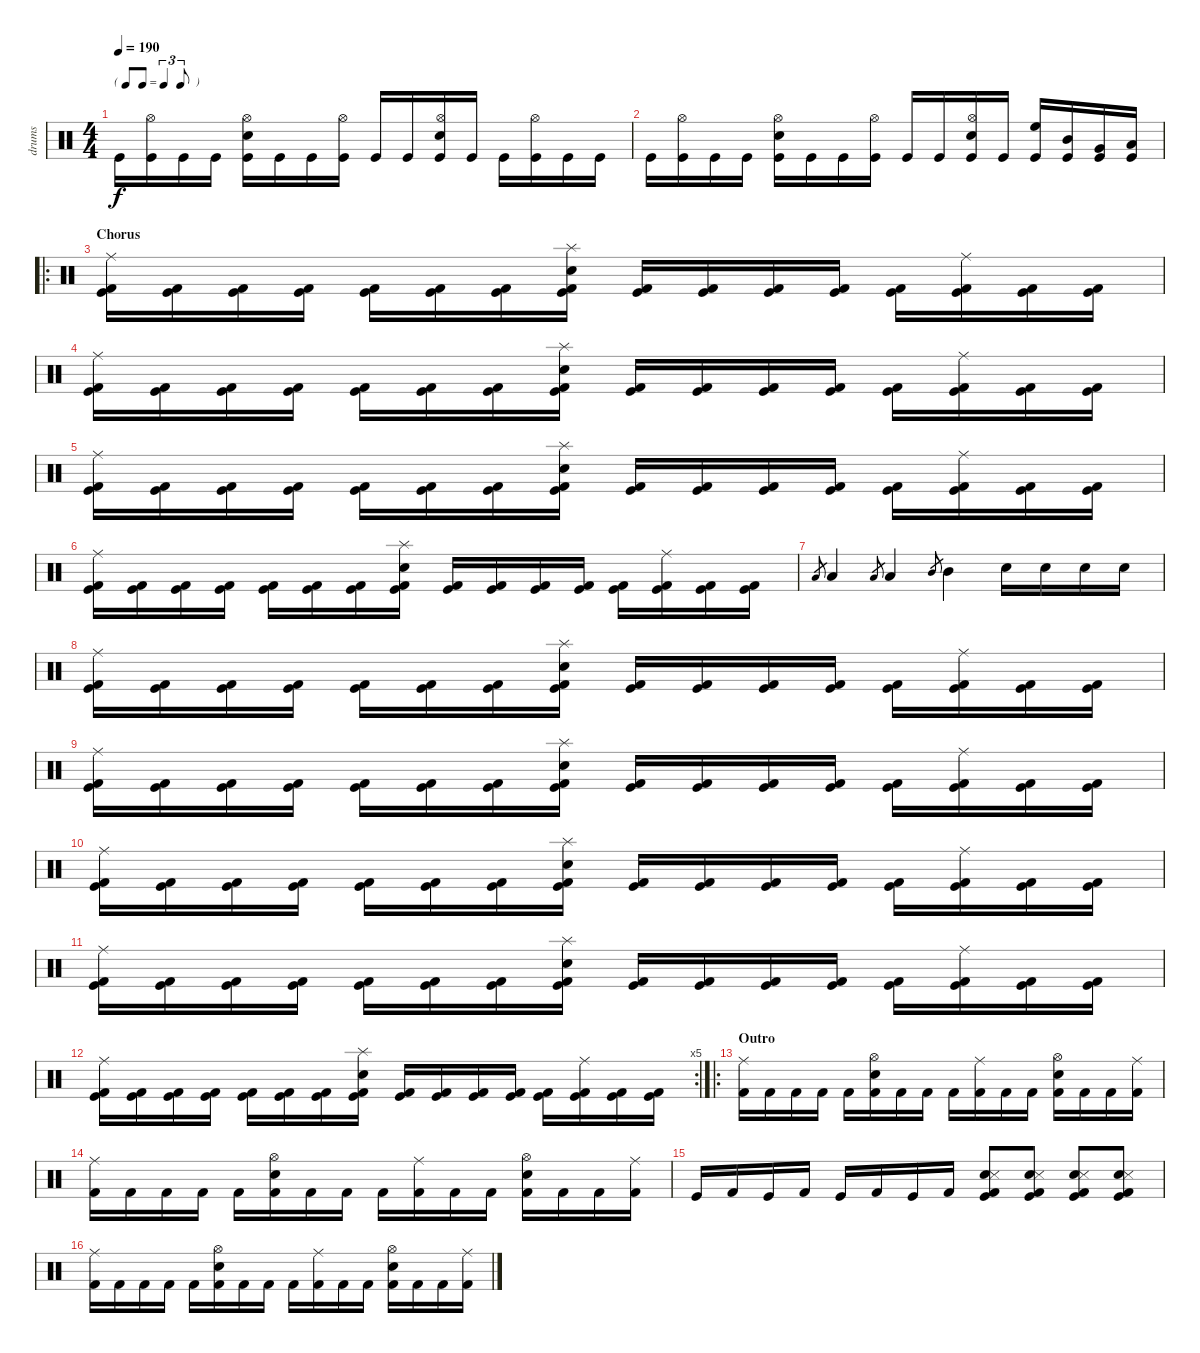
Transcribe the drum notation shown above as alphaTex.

\track ("drums" "drums") {instrument percussion}
\staff {score}
\articulation defaults
\ts (4 4)
\tf triplet8th
\tempo 190
\clef neutral
\ks c "Kick (hit)".16{dy f}
("Kick (hit)" "Hi-Hat (open)").16 "Kick (hit)".16 "Kick (hit)".16 ("Kick (hit)" "Electric Snare (hit)" "Hi-Hat (open)").16 "Kick (hit)".16 "Kick (hit)".16 ("Kick (hit)" "Hi-Hat (open)").16 "Kick (hit)".16 "Kick (hit)".16 ("Kick (hit)" "Electric Snare (hit)" "Hi-Hat (open)").16 "Kick (hit)".16 "Kick (hit)".16 ("Kick (hit)" "Hi-Hat (open)").16 "Kick (hit)".16 "Kick (hit)".16 |
"Kick (hit)".16 ("Kick (hit)" "Hi-Hat (open)").16 "Kick (hit)".16 "Kick (hit)".16 ("Kick (hit)" "Electric Snare (hit)" "Hi-Hat (open)").16 "Kick (hit)".16 "Kick (hit)".16 ("Kick (hit)" "Hi-Hat (open)").16 "Kick (hit)".16 "Kick (hit)".16 ("Kick (hit)" "Electric Snare (hit)" "Hi-Hat (open)").16 "Kick (hit)".16 ("Kick (hit)" "High Floor Tom (hit)").16 ("Kick (hit)" "Mid Tom (hit)").16 ("Kick (hit)" "Very Low Tom (hit)").16 ("Kick (hit)" "Low Floor Tom (hit)").16 |
\ro
\section ("" "Chorus")
("Kick (hit) 2" "Kick (hit)" "Ride (middle)").16 ("Kick (hit) 2" "Kick (hit)").16 ("Kick (hit) 2" "Kick (hit)").16 ("Kick (hit) 2" "Kick (hit)").16 ("Kick (hit) 2" "Kick (hit)").16 ("Kick (hit) 2" "Kick (hit)").16 ("Kick (hit) 2" "Kick (hit)").16 ("Kick (hit) 2" "Kick (hit)" "Electric Snare (hit)" "Splash (hit)").16 ("Kick (hit) 2" "Kick (hit)").16 ("Kick (hit) 2" "Kick (hit)").16 ("Kick (hit) 2" "Kick (hit)").16 ("Kick (hit) 2" "Kick (hit)").16 ("Kick (hit) 2" "Kick (hit)").16 ("Kick (hit) 2" "Kick (hit)" "Ride (middle)").16 ("Kick (hit) 2" "Kick (hit)").16 ("Kick (hit) 2" "Kick (hit)").16 |
("Kick (hit) 2" "Kick (hit)" "Ride (middle)").16 ("Kick (hit) 2" "Kick (hit)").16 ("Kick (hit) 2" "Kick (hit)").16 ("Kick (hit) 2" "Kick (hit)").16 ("Kick (hit) 2" "Kick (hit)").16 ("Kick (hit) 2" "Kick (hit)").16 ("Kick (hit) 2" "Kick (hit)").16 ("Kick (hit) 2" "Kick (hit)" "Electric Snare (hit)" "Splash (hit)").16 ("Kick (hit) 2" "Kick (hit)").16 ("Kick (hit) 2" "Kick (hit)").16 ("Kick (hit) 2" "Kick (hit)").16 ("Kick (hit) 2" "Kick (hit)").16 ("Kick (hit) 2" "Kick (hit)").16 ("Kick (hit) 2" "Kick (hit)" "Ride (middle)").16 ("Kick (hit) 2" "Kick (hit)").16 ("Kick (hit) 2" "Kick (hit)").16 |
("Kick (hit) 2" "Kick (hit)" "Ride (middle)").16 ("Kick (hit) 2" "Kick (hit)").16 ("Kick (hit) 2" "Kick (hit)").16 ("Kick (hit) 2" "Kick (hit)").16 ("Kick (hit) 2" "Kick (hit)").16 ("Kick (hit) 2" "Kick (hit)").16 ("Kick (hit) 2" "Kick (hit)").16 ("Kick (hit) 2" "Kick (hit)" "Electric Snare (hit)" "Splash (hit)").16 ("Kick (hit) 2" "Kick (hit)").16 ("Kick (hit) 2" "Kick (hit)").16 ("Kick (hit) 2" "Kick (hit)").16 ("Kick (hit) 2" "Kick (hit)").16 ("Kick (hit) 2" "Kick (hit)").16 ("Kick (hit) 2" "Kick (hit)" "Ride (middle)").16 ("Kick (hit) 2" "Kick (hit)").16 ("Kick (hit) 2" "Kick (hit)").16 |
("Kick (hit) 2" "Kick (hit)" "Ride (middle)").16 ("Kick (hit) 2" "Kick (hit)").16 ("Kick (hit) 2" "Kick (hit)").16 ("Kick (hit) 2" "Kick (hit)").16 ("Kick (hit) 2" "Kick (hit)").16 ("Kick (hit) 2" "Kick (hit)").16 ("Kick (hit) 2" "Kick (hit)").16 ("Kick (hit) 2" "Kick (hit)" "Electric Snare (hit)" "Splash (hit)").16 ("Kick (hit) 2" "Kick (hit)").16 ("Kick (hit) 2" "Kick (hit)").16 ("Kick (hit) 2" "Kick (hit)").16 ("Kick (hit) 2" "Kick (hit)").16 ("Kick (hit) 2" "Kick (hit)").16 ("Kick (hit) 2" "Kick (hit)" "Ride (middle)").16 ("Kick (hit) 2" "Kick (hit)").16 ("Kick (hit) 2" "Kick (hit)").16 |
"Low Floor Tom (hit)".8{gr} "Low Floor Tom (hit)".4 "Low Tom (hit)".8{gr} "Low Tom (hit)".4 "Mid Tom (hit)".8{gr} "Mid Tom (hit)".4 "Electric Snare (hit)".16 "Electric Snare (hit)".16 "Electric Snare (hit)".16 "Electric Snare (hit)".16 |
("Kick (hit) 2" "Kick (hit)" "Ride (middle)").16 ("Kick (hit) 2" "Kick (hit)").16 ("Kick (hit) 2" "Kick (hit)").16 ("Kick (hit) 2" "Kick (hit)").16 ("Kick (hit) 2" "Kick (hit)").16 ("Kick (hit) 2" "Kick (hit)").16 ("Kick (hit) 2" "Kick (hit)").16 ("Kick (hit) 2" "Kick (hit)" "Electric Snare (hit)" "Splash (hit)").16 ("Kick (hit) 2" "Kick (hit)").16 ("Kick (hit) 2" "Kick (hit)").16 ("Kick (hit) 2" "Kick (hit)").16 ("Kick (hit) 2" "Kick (hit)").16 ("Kick (hit) 2" "Kick (hit)").16 ("Kick (hit) 2" "Kick (hit)" "Ride (middle)").16 ("Kick (hit) 2" "Kick (hit)").16 ("Kick (hit) 2" "Kick (hit)").16 |
("Kick (hit) 2" "Kick (hit)" "Ride (middle)").16 ("Kick (hit) 2" "Kick (hit)").16 ("Kick (hit) 2" "Kick (hit)").16 ("Kick (hit) 2" "Kick (hit)").16 ("Kick (hit) 2" "Kick (hit)").16 ("Kick (hit) 2" "Kick (hit)").16 ("Kick (hit) 2" "Kick (hit)").16 ("Kick (hit) 2" "Kick (hit)" "Electric Snare (hit)" "Splash (hit)").16 ("Kick (hit) 2" "Kick (hit)").16 ("Kick (hit) 2" "Kick (hit)").16 ("Kick (hit) 2" "Kick (hit)").16 ("Kick (hit) 2" "Kick (hit)").16 ("Kick (hit) 2" "Kick (hit)").16 ("Kick (hit) 2" "Kick (hit)" "Ride (middle)").16 ("Kick (hit) 2" "Kick (hit)").16 ("Kick (hit) 2" "Kick (hit)").16 |
("Kick (hit) 2" "Kick (hit)" "Ride (middle)").16 ("Kick (hit) 2" "Kick (hit)").16 ("Kick (hit) 2" "Kick (hit)").16 ("Kick (hit) 2" "Kick (hit)").16 ("Kick (hit) 2" "Kick (hit)").16 ("Kick (hit) 2" "Kick (hit)").16 ("Kick (hit) 2" "Kick (hit)").16 ("Kick (hit) 2" "Kick (hit)" "Electric Snare (hit)" "Splash (hit)").16 ("Kick (hit) 2" "Kick (hit)").16 ("Kick (hit) 2" "Kick (hit)").16 ("Kick (hit) 2" "Kick (hit)").16 ("Kick (hit) 2" "Kick (hit)").16 ("Kick (hit) 2" "Kick (hit)").16 ("Kick (hit) 2" "Kick (hit)" "Ride (middle)").16 ("Kick (hit) 2" "Kick (hit)").16 ("Kick (hit) 2" "Kick (hit)").16 |
("Kick (hit) 2" "Kick (hit)" "Ride (middle)").16 ("Kick (hit) 2" "Kick (hit)").16 ("Kick (hit) 2" "Kick (hit)").16 ("Kick (hit) 2" "Kick (hit)").16 ("Kick (hit) 2" "Kick (hit)").16 ("Kick (hit) 2" "Kick (hit)").16 ("Kick (hit) 2" "Kick (hit)").16 ("Kick (hit) 2" "Kick (hit)" "Electric Snare (hit)" "Splash (hit)").16 ("Kick (hit) 2" "Kick (hit)").16 ("Kick (hit) 2" "Kick (hit)").16 ("Kick (hit) 2" "Kick (hit)").16 ("Kick (hit) 2" "Kick (hit)").16 ("Kick (hit) 2" "Kick (hit)").16 ("Kick (hit) 2" "Kick (hit)" "Ride (middle)").16 ("Kick (hit) 2" "Kick (hit)").16 ("Kick (hit) 2" "Kick (hit)").16 |
\rc 5
("Kick (hit) 2" "Kick (hit)" "Ride (middle)").16 ("Kick (hit) 2" "Kick (hit)").16 ("Kick (hit) 2" "Kick (hit)").16 ("Kick (hit) 2" "Kick (hit)").16 ("Kick (hit) 2" "Kick (hit)").16 ("Kick (hit) 2" "Kick (hit)").16 ("Kick (hit) 2" "Kick (hit)").16 ("Kick (hit) 2" "Kick (hit)" "Electric Snare (hit)" "Splash (hit)").16 ("Kick (hit) 2" "Kick (hit)").16 ("Kick (hit) 2" "Kick (hit)").16 ("Kick (hit) 2" "Kick (hit)").16 ("Kick (hit) 2" "Kick (hit)").16 ("Kick (hit) 2" "Kick (hit)").16 ("Kick (hit) 2" "Kick (hit)" "Ride (middle)").16 ("Kick (hit) 2" "Kick (hit)").16 ("Kick (hit) 2" "Kick (hit)").16 |
\ro
\section ("" "Outro")
("Kick (hit) 2" "Ride (middle)").16 "Kick (hit) 2".16 "Kick (hit) 2".16 "Kick (hit) 2".16 "Kick (hit) 2".16 ("Kick (hit) 2" "Electric Snare (hit)" "Hi-Hat (open)").16 "Kick (hit) 2".16 "Kick (hit) 2".16 "Kick (hit) 2".16 ("Kick (hit) 2" "Ride (middle)").16 "Kick (hit) 2".16 "Kick (hit) 2".16 ("Kick (hit) 2" "Electric Snare (hit)" "Hi-Hat (open)").16 "Kick (hit) 2".16 "Kick (hit) 2".16 ("Kick (hit) 2" "Ride (middle)").16 |
("Kick (hit) 2" "Ride (middle)").16 "Kick (hit) 2".16 "Kick (hit) 2".16 "Kick (hit) 2".16 "Kick (hit) 2".16 ("Kick (hit) 2" "Electric Snare (hit)" "Hi-Hat (open)").16 "Kick (hit) 2".16 "Kick (hit) 2".16 "Kick (hit) 2".16 ("Kick (hit) 2" "Ride (middle)").16 "Kick (hit) 2".16 "Kick (hit) 2".16 ("Kick (hit) 2" "Electric Snare (hit)" "Hi-Hat (open)").16 "Kick (hit) 2".16 "Kick (hit) 2".16 ("Kick (hit) 2" "Ride (middle)").16 |
"Kick (hit)".16 "Kick (hit) 2".16 "Kick (hit)".16 "Kick (hit) 2".16 "Kick (hit)".16 "Kick (hit) 2".16 "Kick (hit)".16 "Kick (hit) 2".16 ("Electric Snare (hit)" "Snare (side stick) 3" "Kick (hit)" "Kick (hit) 2").8 ("Electric Snare (hit)" "Snare (side stick) 3" "Kick (hit)" "Kick (hit) 2").8 ("Electric Snare (hit)" "Snare (side stick) 3" "Kick (hit)" "Kick (hit) 2").8 ("Electric Snare (hit)" "Snare (side stick) 3" "Kick (hit)" "Kick (hit) 2").8 |
("Kick (hit) 2" "Ride (middle)").16 "Kick (hit) 2".16 "Kick (hit) 2".16 "Kick (hit) 2".16 "Kick (hit) 2".16 ("Kick (hit) 2" "Electric Snare (hit)" "Hi-Hat (open)").16 "Kick (hit) 2".16 "Kick (hit) 2".16 "Kick (hit) 2".16 ("Kick (hit) 2" "Ride (middle)").16 "Kick (hit) 2".16 "Kick (hit) 2".16 ("Kick (hit) 2" "Electric Snare (hit)" "Hi-Hat (open)").16 "Kick (hit) 2".16 "Kick (hit) 2".16 ("Kick (hit) 2" "Ride (middle)").16
